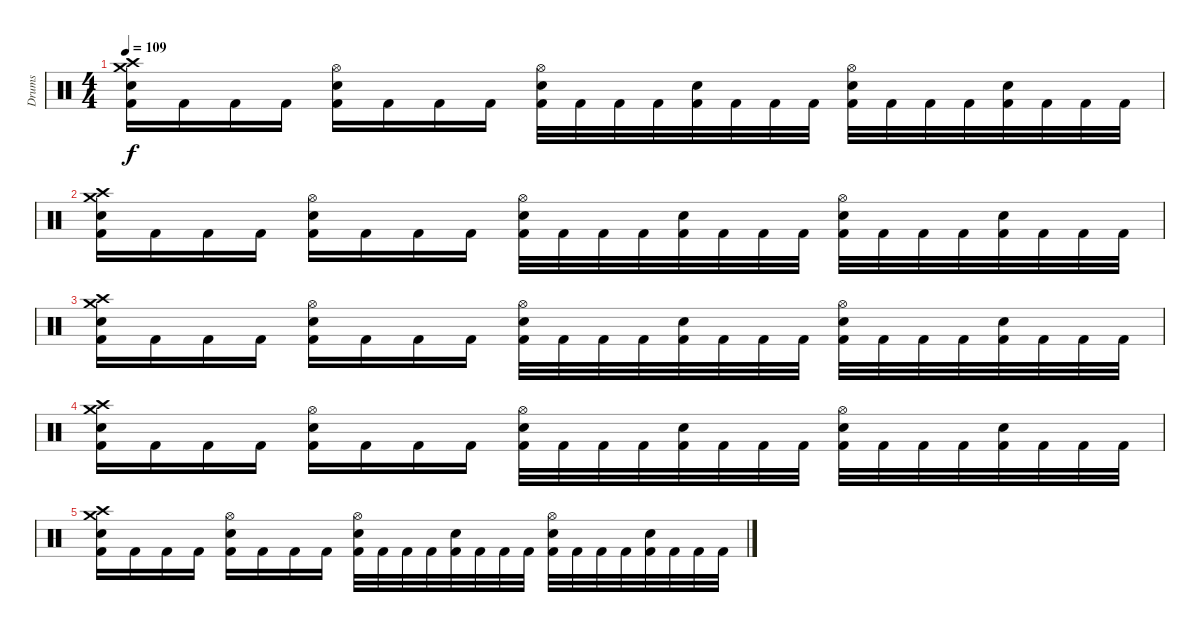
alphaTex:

\track ("Drums" "Drums") {instrument percussion}
\staff {score}
\articulation defaults
\ts (4 4)
\tempo 109
\clef neutral
\ks c
("Crash medium (hit)" "Crash high (hit)" "Snare (hit) 2" "Kick (hit) 2").16{dy f} "Kick (hit) 2".16 "Kick (hit) 2".16 "Kick (hit) 2".16 ("Hi-Hat (open)" "Snare (hit) 2" "Kick (hit) 2").16 "Kick (hit) 2".16 "Kick (hit) 2".16 "Kick (hit) 2".16 ("Hi-Hat (open)" "Snare (hit) 2" "Kick (hit) 2").32 "Kick (hit) 2".32 "Kick (hit) 2".32 "Kick (hit) 2".32 ("Snare (hit) 2" "Kick (hit) 2").32 "Kick (hit) 2".32 "Kick (hit) 2".32 "Kick (hit) 2".32 ("Hi-Hat (open)" "Snare (hit) 2" "Kick (hit) 2").32 "Kick (hit) 2".32 "Kick (hit) 2".32 "Kick (hit) 2".32 ("Snare (hit) 2" "Kick (hit) 2").32 "Kick (hit) 2".32 "Kick (hit) 2".32 "Kick (hit) 2".32 |
("Crash medium (hit)" "Crash high (hit)" "Snare (hit) 2" "Kick (hit) 2").16 "Kick (hit) 2".16 "Kick (hit) 2".16 "Kick (hit) 2".16 ("Hi-Hat (open)" "Snare (hit) 2" "Kick (hit) 2").16 "Kick (hit) 2".16 "Kick (hit) 2".16 "Kick (hit) 2".16 ("Hi-Hat (open)" "Snare (hit) 2" "Kick (hit) 2").32 "Kick (hit) 2".32 "Kick (hit) 2".32 "Kick (hit) 2".32 ("Snare (hit) 2" "Kick (hit) 2").32 "Kick (hit) 2".32 "Kick (hit) 2".32 "Kick (hit) 2".32 ("Hi-Hat (open)" "Snare (hit) 2" "Kick (hit) 2").32 "Kick (hit) 2".32 "Kick (hit) 2".32 "Kick (hit) 2".32 ("Snare (hit) 2" "Kick (hit) 2").32 "Kick (hit) 2".32 "Kick (hit) 2".32 "Kick (hit) 2".32 |
("Crash medium (hit)" "Crash high (hit)" "Snare (hit) 2" "Kick (hit) 2").16 "Kick (hit) 2".16 "Kick (hit) 2".16 "Kick (hit) 2".16 ("Hi-Hat (open)" "Snare (hit) 2" "Kick (hit) 2").16 "Kick (hit) 2".16 "Kick (hit) 2".16 "Kick (hit) 2".16 ("Hi-Hat (open)" "Snare (hit) 2" "Kick (hit) 2").32 "Kick (hit) 2".32 "Kick (hit) 2".32 "Kick (hit) 2".32 ("Snare (hit) 2" "Kick (hit) 2").32 "Kick (hit) 2".32 "Kick (hit) 2".32 "Kick (hit) 2".32 ("Hi-Hat (open)" "Snare (hit) 2" "Kick (hit) 2").32 "Kick (hit) 2".32 "Kick (hit) 2".32 "Kick (hit) 2".32 ("Snare (hit) 2" "Kick (hit) 2").32 "Kick (hit) 2".32 "Kick (hit) 2".32 "Kick (hit) 2".32 |
("Crash medium (hit)" "Crash high (hit)" "Snare (hit) 2" "Kick (hit) 2").16 "Kick (hit) 2".16 "Kick (hit) 2".16 "Kick (hit) 2".16 ("Hi-Hat (open)" "Snare (hit) 2" "Kick (hit) 2").16 "Kick (hit) 2".16 "Kick (hit) 2".16 "Kick (hit) 2".16 ("Hi-Hat (open)" "Snare (hit) 2" "Kick (hit) 2").32 "Kick (hit) 2".32 "Kick (hit) 2".32 "Kick (hit) 2".32 ("Snare (hit) 2" "Kick (hit) 2").32 "Kick (hit) 2".32 "Kick (hit) 2".32 "Kick (hit) 2".32 ("Hi-Hat (open)" "Snare (hit) 2" "Kick (hit) 2").32 "Kick (hit) 2".32 "Kick (hit) 2".32 "Kick (hit) 2".32 ("Snare (hit) 2" "Kick (hit) 2").32 "Kick (hit) 2".32 "Kick (hit) 2".32 "Kick (hit) 2".32 |
("Crash medium (hit)" "Crash high (hit)" "Snare (hit) 2" "Kick (hit) 2").16 "Kick (hit) 2".16 "Kick (hit) 2".16 "Kick (hit) 2".16 ("Hi-Hat (open)" "Snare (hit) 2" "Kick (hit) 2").16 "Kick (hit) 2".16 "Kick (hit) 2".16 "Kick (hit) 2".16 ("Hi-Hat (open)" "Snare (hit) 2" "Kick (hit) 2").32 "Kick (hit) 2".32 "Kick (hit) 2".32 "Kick (hit) 2".32 ("Snare (hit) 2" "Kick (hit) 2").32 "Kick (hit) 2".32 "Kick (hit) 2".32 "Kick (hit) 2".32 ("Hi-Hat (open)" "Snare (hit) 2" "Kick (hit) 2").32 "Kick (hit) 2".32 "Kick (hit) 2".32 "Kick (hit) 2".32 ("Snare (hit) 2" "Kick (hit) 2").32 "Kick (hit) 2".32 "Kick (hit) 2".32 "Kick (hit) 2".32
